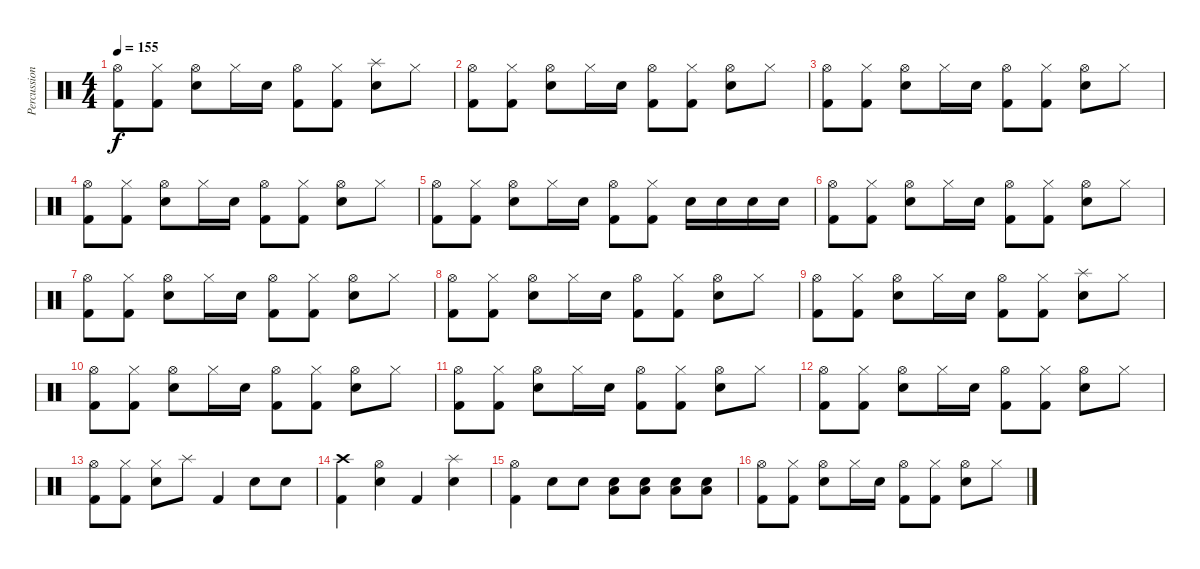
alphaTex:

\track ("Percussion" "Percussion") {instrument percussion}
\staff {score}
\articulation defaults
\ts (4 4)
\tempo 155
\clef neutral
\ks c
("Hi-Hat (open)" "Kick (hit) 2").8{dy f} ("Hi-Hat (closed)" "Kick (hit) 2").8 ("Hi-Hat (open)" "Snare (hit) 2").8 "Hi-Hat (closed)".16 "Snare (hit) 2".16 ("Hi-Hat (open)" "Kick (hit) 2").8 ("Hi-Hat (closed)" "Kick (hit) 2").8 ("Splash (hit)" "Snare (hit) 2").8 "Hi-Hat (closed)".8 |
("Hi-Hat (open)" "Kick (hit) 2").8 ("Hi-Hat (closed)" "Kick (hit) 2").8 ("Hi-Hat (open)" "Snare (hit) 2").8 "Hi-Hat (closed)".16 "Snare (hit) 2".16 ("Hi-Hat (open)" "Kick (hit) 2").8 ("Hi-Hat (closed)" "Kick (hit) 2").8 ("Hi-Hat (open)" "Snare (hit) 2").8 "Hi-Hat (closed)".8 |
("Hi-Hat (open)" "Kick (hit) 2").8 ("Hi-Hat (closed)" "Kick (hit) 2").8 ("Hi-Hat (open)" "Snare (hit) 2").8 "Hi-Hat (closed)".16 "Snare (hit) 2".16 ("Hi-Hat (open)" "Kick (hit) 2").8 ("Hi-Hat (closed)" "Kick (hit) 2").8 ("Hi-Hat (open)" "Snare (hit) 2").8 "Hi-Hat (closed)".8 |
("Hi-Hat (open)" "Kick (hit) 2").8 ("Hi-Hat (closed)" "Kick (hit) 2").8 ("Hi-Hat (open)" "Snare (hit) 2").8 "Hi-Hat (closed)".16 "Snare (hit) 2".16 ("Hi-Hat (open)" "Kick (hit) 2").8 ("Hi-Hat (closed)" "Kick (hit) 2").8 ("Hi-Hat (open)" "Snare (hit) 2").8 "Hi-Hat (closed)".8 |
("Hi-Hat (open)" "Kick (hit) 2").8 ("Hi-Hat (closed)" "Kick (hit) 2").8 ("Hi-Hat (open)" "Snare (hit) 2").8 "Hi-Hat (closed)".16 "Snare (hit) 2".16 ("Hi-Hat (open)" "Kick (hit) 2").8 ("Hi-Hat (closed)" "Kick (hit) 2").8 "Snare (hit) 2".16 "Snare (hit) 2".16 "Snare (hit) 2".16 "Snare (hit) 2".16 |
("Hi-Hat (open)" "Kick (hit) 2").8 ("Hi-Hat (closed)" "Kick (hit) 2").8 ("Hi-Hat (open)" "Snare (hit) 2").8 "Hi-Hat (closed)".16 "Snare (hit) 2".16 ("Hi-Hat (open)" "Kick (hit) 2").8 ("Hi-Hat (closed)" "Kick (hit) 2").8 ("Hi-Hat (open)" "Snare (hit) 2").8 "Hi-Hat (closed)".8 |
("Hi-Hat (open)" "Kick (hit) 2").8 ("Hi-Hat (closed)" "Kick (hit) 2").8 ("Hi-Hat (open)" "Snare (hit) 2").8 "Hi-Hat (closed)".16 "Snare (hit) 2".16 ("Hi-Hat (open)" "Kick (hit) 2").8 ("Hi-Hat (closed)" "Kick (hit) 2").8 ("Hi-Hat (open)" "Snare (hit) 2").8 "Hi-Hat (closed)".8 |
("Hi-Hat (open)" "Kick (hit) 2").8 ("Hi-Hat (closed)" "Kick (hit) 2").8 ("Hi-Hat (open)" "Snare (hit) 2").8 "Hi-Hat (closed)".16 "Snare (hit) 2".16 ("Hi-Hat (open)" "Kick (hit) 2").8 ("Hi-Hat (closed)" "Kick (hit) 2").8 ("Hi-Hat (open)" "Snare (hit) 2").8 "Hi-Hat (closed)".8 |
("Hi-Hat (open)" "Kick (hit) 2").8 ("Hi-Hat (closed)" "Kick (hit) 2").8 ("Hi-Hat (open)" "Snare (hit) 2").8 "Hi-Hat (closed)".16 "Snare (hit) 2".16 ("Hi-Hat (open)" "Kick (hit) 2").8 ("Hi-Hat (closed)" "Kick (hit) 2").8 ("Splash (hit)" "Snare (hit) 2").8 "Hi-Hat (closed)".8 |
("Hi-Hat (open)" "Kick (hit) 2").8 ("Hi-Hat (closed)" "Kick (hit) 2").8 ("Hi-Hat (open)" "Snare (hit) 2").8 "Hi-Hat (closed)".16 "Snare (hit) 2".16 ("Hi-Hat (open)" "Kick (hit) 2").8 ("Hi-Hat (closed)" "Kick (hit) 2").8 ("Hi-Hat (open)" "Snare (hit) 2").8 "Hi-Hat (closed)".8 |
("Hi-Hat (open)" "Kick (hit) 2").8 ("Hi-Hat (closed)" "Kick (hit) 2").8 ("Hi-Hat (open)" "Snare (hit) 2").8 "Hi-Hat (closed)".16 "Snare (hit) 2".16 ("Hi-Hat (open)" "Kick (hit) 2").8 ("Hi-Hat (closed)" "Kick (hit) 2").8 ("Hi-Hat (open)" "Snare (hit) 2").8 "Hi-Hat (closed)".8 |
("Hi-Hat (open)" "Kick (hit) 2").8 ("Hi-Hat (closed)" "Kick (hit) 2").8 ("Hi-Hat (open)" "Snare (hit) 2").8 "Hi-Hat (closed)".16 "Snare (hit) 2".16 ("Hi-Hat (open)" "Kick (hit) 2").8 ("Hi-Hat (closed)" "Kick (hit) 2").8 ("Hi-Hat (open)" "Snare (hit) 2").8 "Hi-Hat (closed)".8 |
("Hi-Hat (open)" "Kick (hit) 2").8 ("Hi-Hat (closed)" "Kick (hit) 2").8 ("Hi-Hat (closed)" "Snare (hit) 2").8 "Splash (hit)".8 "Kick (hit) 2".4 "Snare (hit) 2".8 "Snare (hit) 2".8 |
("Crash high (hit)" "Kick (hit) 2").4 ("Hi-Hat (open)" "Snare (hit) 2").4 "Kick (hit) 2".4 ("Splash (hit)" "Snare (hit) 2").4 |
("Hi-Hat (open)" "Kick (hit) 2").4 "Snare (hit) 2".8 "Snare (hit) 2".8 ("Snare (hit) 2" "Low Floor Tom (hit)").8 ("Snare (hit) 2" "Low Floor Tom (hit)").8 ("Snare (hit) 2" "Low Floor Tom (hit)").8 ("Snare (hit) 2" "Low Floor Tom (hit)").8 |
("Hi-Hat (open)" "Kick (hit) 2").8 ("Hi-Hat (closed)" "Kick (hit) 2").8 ("Hi-Hat (open)" "Snare (hit) 2").8 "Hi-Hat (closed)".16 "Snare (hit) 2".16 ("Hi-Hat (open)" "Kick (hit) 2").8 ("Hi-Hat (closed)" "Kick (hit) 2").8 ("Hi-Hat (open)" "Snare (hit) 2").8 "Hi-Hat (closed)".8
